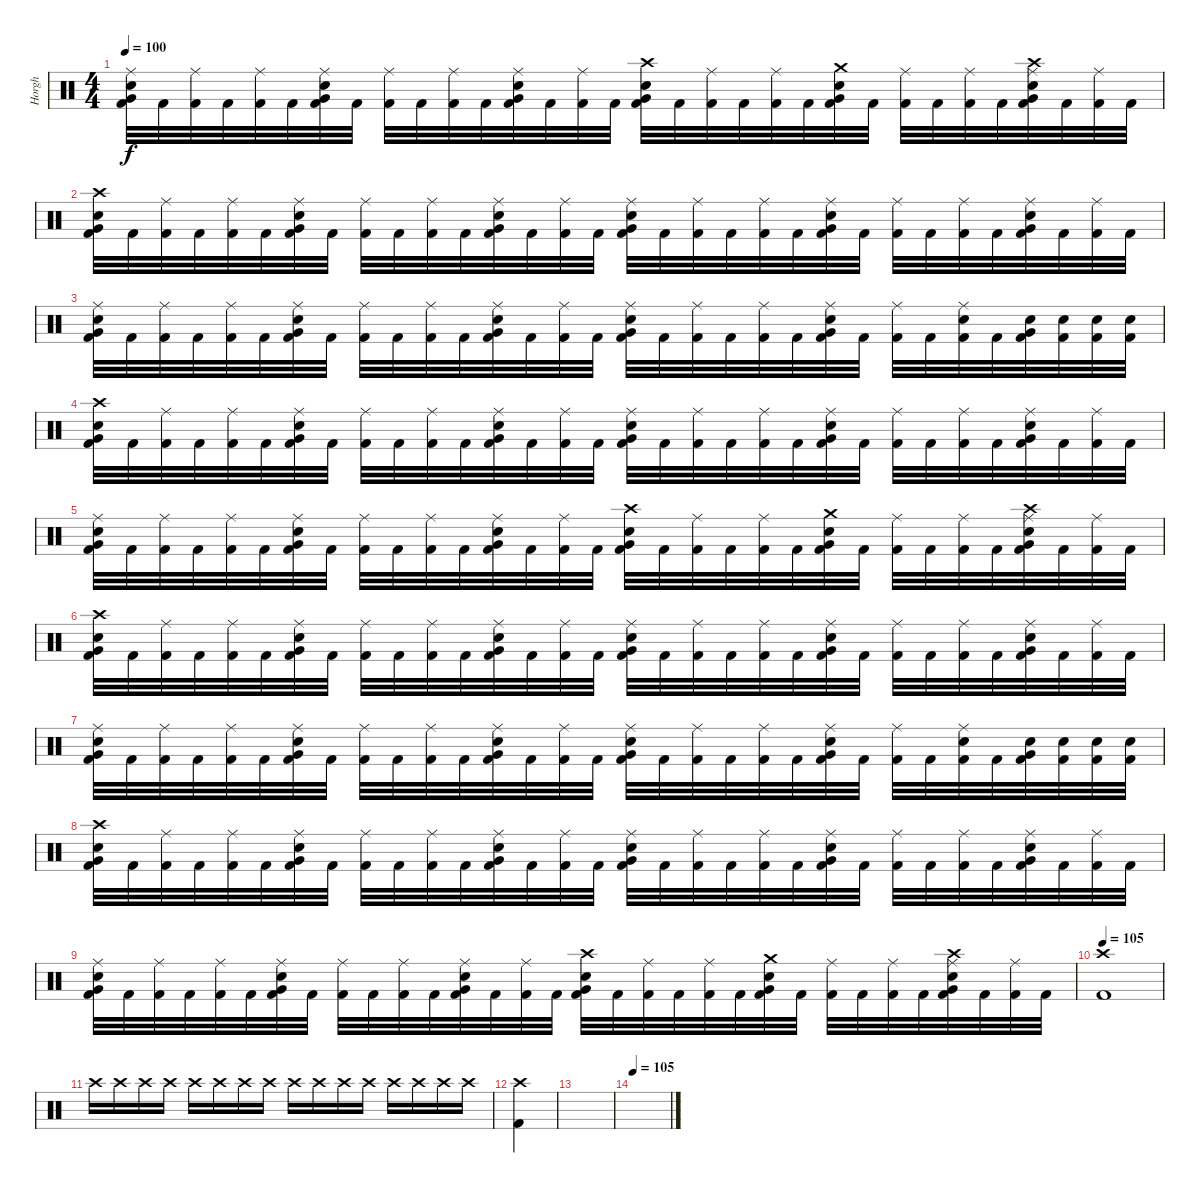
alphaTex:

\track ("Horgh" "Horgh") {instrument percussion}
\staff {score}
\articulation defaults
\ts (4 4)
\tempo 100
\clef neutral
\ks c
("Ride (middle)" "Electric Snare (hit)" "Very Low Tom (hit)" "Kick (hit) 2").32{dy f} "Kick (hit) 2".32 ("Ride (middle)" "Kick (hit) 2").32 "Kick (hit) 2".32 ("Ride (middle)" "Kick (hit) 2").32 "Kick (hit) 2".32 ("Ride (middle)" "Electric Snare (hit)" "Very Low Tom (hit)" "Kick (hit) 2").32 "Kick (hit) 2".32 ("Ride (middle)" "Kick (hit) 2").32 "Kick (hit) 2".32 ("Ride (middle)" "Kick (hit) 2").32 "Kick (hit) 2".32 ("Ride (middle)" "Electric Snare (hit)" "Very Low Tom (hit)" "Kick (hit) 2").32 "Kick (hit) 2".32 ("Ride (middle)" "Kick (hit) 2").32 "Kick (hit) 2".32 ("Crash high (hit)" "Electric Snare (hit)" "Very Low Tom (hit)" "Kick (hit) 2").32 "Kick (hit) 2".32 ("Ride (middle)" "Kick (hit) 2").32 "Kick (hit) 2".32 ("Ride (middle)" "Kick (hit) 2").32 "Kick (hit) 2".32 ("Crash medium (hit)" "Electric Snare (hit)" "Very Low Tom (hit)" "Kick (hit) 2").32 "Kick (hit) 2".32 ("Ride (middle)" "Kick (hit) 2").32 "Kick (hit) 2".32 ("Ride (middle)" "Kick (hit) 2").32 "Kick (hit) 2".32 ("Crash high (hit)" "Ride (middle)" "Electric Snare (hit)" "Very Low Tom (hit)" "Kick (hit) 2").32 "Kick (hit) 2".32 ("Ride (middle)" "Kick (hit) 2").32 "Kick (hit) 2".32 |
("Crash high (hit)" "Electric Snare (hit)" "Very Low Tom (hit)" "Kick (hit) 2").32 "Kick (hit) 2".32 ("Ride (middle)" "Kick (hit) 2").32 "Kick (hit) 2".32 ("Ride (middle)" "Kick (hit) 2").32 "Kick (hit) 2".32 ("Ride (middle)" "Electric Snare (hit)" "Very Low Tom (hit)" "Kick (hit) 2").32 "Kick (hit) 2".32 ("Ride (middle)" "Kick (hit) 2").32 "Kick (hit) 2".32 ("Ride (middle)" "Kick (hit) 2").32 "Kick (hit) 2".32 ("Ride (middle)" "Electric Snare (hit)" "Very Low Tom (hit)" "Kick (hit) 2").32 "Kick (hit) 2".32 ("Ride (middle)" "Kick (hit) 2").32 "Kick (hit) 2".32 ("Ride (middle)" "Electric Snare (hit)" "Very Low Tom (hit)" "Kick (hit) 2").32 "Kick (hit) 2".32 ("Ride (middle)" "Kick (hit) 2").32 "Kick (hit) 2".32 ("Ride (middle)" "Kick (hit) 2").32 "Kick (hit) 2".32 ("Ride (middle)" "Electric Snare (hit)" "Very Low Tom (hit)" "Kick (hit) 2").32 "Kick (hit) 2".32 ("Ride (middle)" "Kick (hit) 2").32 "Kick (hit) 2".32 ("Ride (middle)" "Kick (hit) 2").32 "Kick (hit) 2".32 ("Ride (middle)" "Electric Snare (hit)" "Very Low Tom (hit)" "Kick (hit) 2").32 "Kick (hit) 2".32 ("Ride (middle)" "Kick (hit) 2").32 "Kick (hit) 2".32 |
("Ride (middle)" "Electric Snare (hit)" "Very Low Tom (hit)" "Kick (hit) 2").32 "Kick (hit) 2".32 ("Ride (middle)" "Kick (hit) 2").32 "Kick (hit) 2".32 ("Ride (middle)" "Kick (hit) 2").32 "Kick (hit) 2".32 ("Ride (middle)" "Electric Snare (hit)" "Very Low Tom (hit)" "Kick (hit) 2").32 "Kick (hit) 2".32 ("Ride (middle)" "Kick (hit) 2").32 "Kick (hit) 2".32 ("Ride (middle)" "Kick (hit) 2").32 "Kick (hit) 2".32 ("Ride (middle)" "Electric Snare (hit)" "Very Low Tom (hit)" "Kick (hit) 2").32 "Kick (hit) 2".32 ("Ride (middle)" "Kick (hit) 2").32 "Kick (hit) 2".32 ("Ride (middle)" "Electric Snare (hit)" "Very Low Tom (hit)" "Kick (hit) 2").32 "Kick (hit) 2".32 ("Ride (middle)" "Kick (hit) 2").32 "Kick (hit) 2".32 ("Ride (middle)" "Kick (hit) 2").32 "Kick (hit) 2".32 ("Ride (middle)" "Electric Snare (hit)" "Very Low Tom (hit)" "Kick (hit) 2").32 "Kick (hit) 2".32 ("Ride (middle)" "Kick (hit) 2").32 "Kick (hit) 2".32 ("Ride (middle)" "Electric Snare (hit)" "Kick (hit) 2").32 "Kick (hit) 2".32 ("Electric Snare (hit)" "Very Low Tom (hit)" "Kick (hit) 2").32 ("Electric Snare (hit)" "Kick (hit) 2").32 ("Electric Snare (hit)" "Kick (hit) 2").32 ("Electric Snare (hit)" "Kick (hit) 2").32 |
("Crash high (hit)" "Electric Snare (hit)" "Very Low Tom (hit)" "Kick (hit) 2").32 "Kick (hit) 2".32 ("Ride (middle)" "Kick (hit) 2").32 "Kick (hit) 2".32 ("Ride (middle)" "Kick (hit) 2").32 "Kick (hit) 2".32 ("Ride (middle)" "Electric Snare (hit)" "Very Low Tom (hit)" "Kick (hit) 2").32 "Kick (hit) 2".32 ("Ride (middle)" "Kick (hit) 2").32 "Kick (hit) 2".32 ("Ride (middle)" "Kick (hit) 2").32 "Kick (hit) 2".32 ("Ride (middle)" "Electric Snare (hit)" "Very Low Tom (hit)" "Kick (hit) 2").32 "Kick (hit) 2".32 ("Ride (middle)" "Kick (hit) 2").32 "Kick (hit) 2".32 ("Ride (middle)" "Electric Snare (hit)" "Very Low Tom (hit)" "Kick (hit) 2").32 "Kick (hit) 2".32 ("Ride (middle)" "Kick (hit) 2").32 "Kick (hit) 2".32 ("Ride (middle)" "Kick (hit) 2").32 "Kick (hit) 2".32 ("Ride (middle)" "Electric Snare (hit)" "Very Low Tom (hit)" "Kick (hit) 2").32 "Kick (hit) 2".32 ("Ride (middle)" "Kick (hit) 2").32 "Kick (hit) 2".32 ("Ride (middle)" "Kick (hit) 2").32 "Kick (hit) 2".32 ("Ride (middle)" "Electric Snare (hit)" "Very Low Tom (hit)" "Kick (hit) 2").32 "Kick (hit) 2".32 ("Ride (middle)" "Kick (hit) 2").32 "Kick (hit) 2".32 |
("Ride (middle)" "Electric Snare (hit)" "Very Low Tom (hit)" "Kick (hit) 2").32 "Kick (hit) 2".32 ("Ride (middle)" "Kick (hit) 2").32 "Kick (hit) 2".32 ("Ride (middle)" "Kick (hit) 2").32 "Kick (hit) 2".32 ("Ride (middle)" "Electric Snare (hit)" "Very Low Tom (hit)" "Kick (hit) 2").32 "Kick (hit) 2".32 ("Ride (middle)" "Kick (hit) 2").32 "Kick (hit) 2".32 ("Ride (middle)" "Kick (hit) 2").32 "Kick (hit) 2".32 ("Ride (middle)" "Electric Snare (hit)" "Very Low Tom (hit)" "Kick (hit) 2").32 "Kick (hit) 2".32 ("Ride (middle)" "Kick (hit) 2").32 "Kick (hit) 2".32 ("Crash high (hit)" "Electric Snare (hit)" "Very Low Tom (hit)" "Kick (hit) 2").32 "Kick (hit) 2".32 ("Ride (middle)" "Kick (hit) 2").32 "Kick (hit) 2".32 ("Ride (middle)" "Kick (hit) 2").32 "Kick (hit) 2".32 ("Crash medium (hit)" "Electric Snare (hit)" "Very Low Tom (hit)" "Kick (hit) 2").32 "Kick (hit) 2".32 ("Ride (middle)" "Kick (hit) 2").32 "Kick (hit) 2".32 ("Ride (middle)" "Kick (hit) 2").32 "Kick (hit) 2".32 ("Crash high (hit)" "Ride (middle)" "Electric Snare (hit)" "Very Low Tom (hit)" "Kick (hit) 2").32 "Kick (hit) 2".32 ("Ride (middle)" "Kick (hit) 2").32 "Kick (hit) 2".32 |
("Crash high (hit)" "Electric Snare (hit)" "Very Low Tom (hit)" "Kick (hit) 2").32 "Kick (hit) 2".32 ("Ride (middle)" "Kick (hit) 2").32 "Kick (hit) 2".32 ("Ride (middle)" "Kick (hit) 2").32 "Kick (hit) 2".32 ("Ride (middle)" "Electric Snare (hit)" "Very Low Tom (hit)" "Kick (hit) 2").32 "Kick (hit) 2".32 ("Ride (middle)" "Kick (hit) 2").32 "Kick (hit) 2".32 ("Ride (middle)" "Kick (hit) 2").32 "Kick (hit) 2".32 ("Ride (middle)" "Electric Snare (hit)" "Very Low Tom (hit)" "Kick (hit) 2").32 "Kick (hit) 2".32 ("Ride (middle)" "Kick (hit) 2").32 "Kick (hit) 2".32 ("Ride (middle)" "Electric Snare (hit)" "Very Low Tom (hit)" "Kick (hit) 2").32 "Kick (hit) 2".32 ("Ride (middle)" "Kick (hit) 2").32 "Kick (hit) 2".32 ("Ride (middle)" "Kick (hit) 2").32 "Kick (hit) 2".32 ("Ride (middle)" "Electric Snare (hit)" "Very Low Tom (hit)" "Kick (hit) 2").32 "Kick (hit) 2".32 ("Ride (middle)" "Kick (hit) 2").32 "Kick (hit) 2".32 ("Ride (middle)" "Kick (hit) 2").32 "Kick (hit) 2".32 ("Ride (middle)" "Electric Snare (hit)" "Very Low Tom (hit)" "Kick (hit) 2").32 "Kick (hit) 2".32 ("Ride (middle)" "Kick (hit) 2").32 "Kick (hit) 2".32 |
("Ride (middle)" "Electric Snare (hit)" "Very Low Tom (hit)" "Kick (hit) 2").32 "Kick (hit) 2".32 ("Ride (middle)" "Kick (hit) 2").32 "Kick (hit) 2".32 ("Ride (middle)" "Kick (hit) 2").32 "Kick (hit) 2".32 ("Ride (middle)" "Electric Snare (hit)" "Very Low Tom (hit)" "Kick (hit) 2").32 "Kick (hit) 2".32 ("Ride (middle)" "Kick (hit) 2").32 "Kick (hit) 2".32 ("Ride (middle)" "Kick (hit) 2").32 "Kick (hit) 2".32 ("Ride (middle)" "Electric Snare (hit)" "Very Low Tom (hit)" "Kick (hit) 2").32 "Kick (hit) 2".32 ("Ride (middle)" "Kick (hit) 2").32 "Kick (hit) 2".32 ("Ride (middle)" "Electric Snare (hit)" "Very Low Tom (hit)" "Kick (hit) 2").32 "Kick (hit) 2".32 ("Ride (middle)" "Kick (hit) 2").32 "Kick (hit) 2".32 ("Ride (middle)" "Kick (hit) 2").32 "Kick (hit) 2".32 ("Ride (middle)" "Electric Snare (hit)" "Very Low Tom (hit)" "Kick (hit) 2").32 "Kick (hit) 2".32 ("Ride (middle)" "Kick (hit) 2").32 "Kick (hit) 2".32 ("Ride (middle)" "Electric Snare (hit)" "Kick (hit) 2").32 "Kick (hit) 2".32 ("Electric Snare (hit)" "Very Low Tom (hit)" "Kick (hit) 2").32 ("Electric Snare (hit)" "Kick (hit) 2").32 ("Electric Snare (hit)" "Kick (hit) 2").32 ("Electric Snare (hit)" "Kick (hit) 2").32 |
("Crash high (hit)" "Electric Snare (hit)" "Very Low Tom (hit)" "Kick (hit) 2").32 "Kick (hit) 2".32 ("Ride (middle)" "Kick (hit) 2").32 "Kick (hit) 2".32 ("Ride (middle)" "Kick (hit) 2").32 "Kick (hit) 2".32 ("Ride (middle)" "Electric Snare (hit)" "Very Low Tom (hit)" "Kick (hit) 2").32 "Kick (hit) 2".32 ("Ride (middle)" "Kick (hit) 2").32 "Kick (hit) 2".32 ("Ride (middle)" "Kick (hit) 2").32 "Kick (hit) 2".32 ("Ride (middle)" "Electric Snare (hit)" "Very Low Tom (hit)" "Kick (hit) 2").32 "Kick (hit) 2".32 ("Ride (middle)" "Kick (hit) 2").32 "Kick (hit) 2".32 ("Ride (middle)" "Electric Snare (hit)" "Very Low Tom (hit)" "Kick (hit) 2").32 "Kick (hit) 2".32 ("Ride (middle)" "Kick (hit) 2").32 "Kick (hit) 2".32 ("Ride (middle)" "Kick (hit) 2").32 "Kick (hit) 2".32 ("Ride (middle)" "Electric Snare (hit)" "Very Low Tom (hit)" "Kick (hit) 2").32 "Kick (hit) 2".32 ("Ride (middle)" "Kick (hit) 2").32 "Kick (hit) 2".32 ("Ride (middle)" "Kick (hit) 2").32 "Kick (hit) 2".32 ("Ride (middle)" "Electric Snare (hit)" "Very Low Tom (hit)" "Kick (hit) 2").32 "Kick (hit) 2".32 ("Ride (middle)" "Kick (hit) 2").32 "Kick (hit) 2".32 |
("Ride (middle)" "Electric Snare (hit)" "Very Low Tom (hit)" "Kick (hit) 2").32 "Kick (hit) 2".32 ("Ride (middle)" "Kick (hit) 2").32 "Kick (hit) 2".32 ("Ride (middle)" "Kick (hit) 2").32 "Kick (hit) 2".32 ("Ride (middle)" "Electric Snare (hit)" "Very Low Tom (hit)" "Kick (hit) 2").32 "Kick (hit) 2".32 ("Ride (middle)" "Kick (hit) 2").32 "Kick (hit) 2".32 ("Ride (middle)" "Kick (hit) 2").32 "Kick (hit) 2".32 ("Ride (middle)" "Electric Snare (hit)" "Very Low Tom (hit)" "Kick (hit) 2").32 "Kick (hit) 2".32 ("Ride (middle)" "Kick (hit) 2").32 "Kick (hit) 2".32 ("Crash high (hit)" "Electric Snare (hit)" "Very Low Tom (hit)" "Kick (hit) 2").32 "Kick (hit) 2".32 ("Ride (middle)" "Kick (hit) 2").32 "Kick (hit) 2".32 ("Ride (middle)" "Kick (hit) 2").32 "Kick (hit) 2".32 ("Crash medium (hit)" "Electric Snare (hit)" "Very Low Tom (hit)" "Kick (hit) 2").32 "Kick (hit) 2".32 ("Ride (middle)" "Kick (hit) 2").32 "Kick (hit) 2".32 ("Ride (middle)" "Kick (hit) 2").32 "Kick (hit) 2".32 ("Crash high (hit)" "Ride (middle)" "Electric Snare (hit)" "Very Low Tom (hit)" "Kick (hit) 2").32 "Kick (hit) 2".32 ("Ride (middle)" "Kick (hit) 2").32 "Kick (hit) 2".32 |
\tempo 105
("Crash high (hit)" "Kick (hit) 2").1 |
"Crash high (hit)".16{volume 2} "Crash high (hit)".16{volume 13} "Crash high (hit)".16 "Crash high (hit)".16 "Crash high (hit)".16 "Crash high (hit)".16 "Crash high (hit)".16 "Crash high (hit)".16 "Crash high (hit)".16 "Crash high (hit)".16 "Crash high (hit)".16 "Crash high (hit)".16 "Crash high (hit)".16 "Crash high (hit)".16{volume 13} "Crash high (hit)".16 "Crash high (hit)".16 |
("Crash high (hit)" "Kick (hit) 2").4 |
|
\tempo 105
